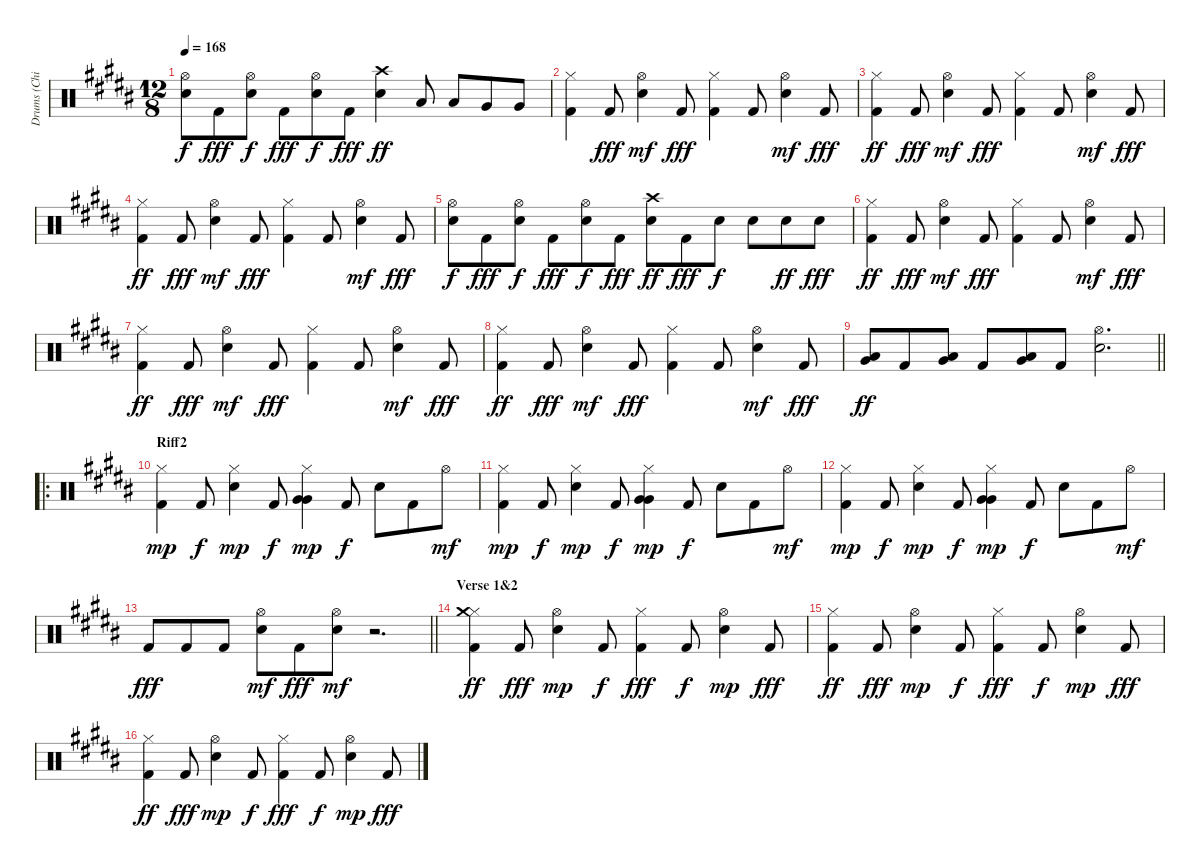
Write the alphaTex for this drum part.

\track ("Drums (Chinyakov)" "Drums (Chi") {instrument percussion}
\staff {score}
\articulation defaults
\ts (12 8)
\tempo 168
\clef neutral
\ks b
("Electric Snare (hit)" "Hi-Hat (open)").8{dy f} "Kick (hit) 2".8{dy fff} ("Electric Snare (hit)" "Hi-Hat (open)").8{dy f} "Kick (hit) 2".8{dy fff} ("Electric Snare (hit)" "Hi-Hat (open)").8{dy f} "Kick (hit) 2".8{dy fff} ("Electric Snare (hit)" "Crash high (hit)").4{dy ff} "Low Tom (hit)".8 "Low Tom (hit)".8 "Very Low Tom (hit)".8 "Very Low Tom (hit)".8 |
("Kick (hit) 2" "Hi-Hat (closed)").4 "Kick (hit) 2".8{dy fff} ("Electric Snare (hit)" "Hi-Hat (open)").4{dy mf} "Kick (hit) 2".8{dy fff} ("Kick (hit) 2" "Hi-Hat (closed)").4 "Kick (hit) 2".8 ("Electric Snare (hit)" "Hi-Hat (open)").4{dy mf} "Kick (hit) 2".8{dy fff} |
("Kick (hit) 2" "Hi-Hat (closed)").4{dy ff} "Kick (hit) 2".8{dy fff} ("Electric Snare (hit)" "Hi-Hat (open)").4{dy mf} "Kick (hit) 2".8{dy fff} ("Kick (hit) 2" "Hi-Hat (closed)").4 "Kick (hit) 2".8 ("Electric Snare (hit)" "Hi-Hat (open)").4{dy mf} "Kick (hit) 2".8{dy fff} |
("Kick (hit) 2" "Hi-Hat (closed)").4{dy ff} "Kick (hit) 2".8{dy fff} ("Electric Snare (hit)" "Hi-Hat (open)").4{dy mf} "Kick (hit) 2".8{dy fff} ("Kick (hit) 2" "Hi-Hat (closed)").4 "Kick (hit) 2".8 ("Electric Snare (hit)" "Hi-Hat (open)").4{dy mf} "Kick (hit) 2".8{dy fff} |
("Electric Snare (hit)" "Hi-Hat (open)").8{dy f} "Kick (hit) 2".8{dy fff} ("Electric Snare (hit)" "Hi-Hat (open)").8{dy f} "Kick (hit) 2".8{dy fff} ("Electric Snare (hit)" "Hi-Hat (open)").8{dy f} "Kick (hit) 2".8{dy fff} ("Electric Snare (hit)" "Crash high (hit)").8{dy ff} "Kick (hit) 2".8{dy fff} "Electric Snare (hit)".8{dy f} "Electric Snare (hit)".8 "Electric Snare (hit)".8{dy ff} "Electric Snare (hit)".8{dy fff} |
("Kick (hit) 2" "Hi-Hat (closed)").4{dy ff} "Kick (hit) 2".8{dy fff} ("Electric Snare (hit)" "Hi-Hat (open)").4{dy mf} "Kick (hit) 2".8{dy fff} ("Kick (hit) 2" "Hi-Hat (closed)").4 "Kick (hit) 2".8 ("Electric Snare (hit)" "Hi-Hat (open)").4{dy mf} "Kick (hit) 2".8{dy fff} |
("Kick (hit) 2" "Hi-Hat (closed)").4{dy ff} "Kick (hit) 2".8{dy fff} ("Electric Snare (hit)" "Hi-Hat (open)").4{dy mf} "Kick (hit) 2".8{dy fff} ("Kick (hit) 2" "Hi-Hat (closed)").4 "Kick (hit) 2".8 ("Electric Snare (hit)" "Hi-Hat (open)").4{dy mf} "Kick (hit) 2".8{dy fff} |
("Kick (hit) 2" "Hi-Hat (closed)").4{dy ff} "Kick (hit) 2".8{dy fff} ("Electric Snare (hit)" "Hi-Hat (open)").4{dy mf} "Kick (hit) 2".8{dy fff} ("Kick (hit) 2" "Hi-Hat (closed)").4 "Kick (hit) 2".8 ("Electric Snare (hit)" "Hi-Hat (open)").4{dy mf} "Kick (hit) 2".8{dy fff} |
\barLineRight lightlight
("Low Floor Tom (hit)" "Very Low Tom (hit)").8{bd 120 dy ff} "Kick (hit) 2".8 ("Low Floor Tom (hit)" "Very Low Tom (hit)").8{bd 120} "Kick (hit) 2".8 ("Low Floor Tom (hit)" "Very Low Tom (hit)").8{bd 120} "Kick (hit) 2".8 ("Electric Snare (hit)" "Hi-Hat (open)").2{d} |
\ro
\section ("" "Riff2")
("Kick (hit) 2" "Hi-Hat (closed)").4{dy mp} "Kick (hit) 2".8{dy f} ("Electric Snare (hit)" "Hi-Hat (closed)").4{dy mp} "Kick (hit) 2".8{dy f} ("Very Low Tom (hit)" "Very Low Tom (hit)" "Hi-Hat (closed)").4{dy mp} "Kick (hit) 2".8{dy f} "Electric Snare (hit)".8 "Kick (hit) 2".8 "Hi-Hat (open)".8{dy mf} |
("Kick (hit) 2" "Hi-Hat (closed)").4{dy mp} "Kick (hit) 2".8{dy f} ("Electric Snare (hit)" "Hi-Hat (closed)").4{dy mp} "Kick (hit) 2".8{dy f} ("Very Low Tom (hit)" "Very Low Tom (hit)" "Hi-Hat (closed)").4{dy mp} "Kick (hit) 2".8{dy f} "Electric Snare (hit)".8 "Kick (hit) 2".8 "Hi-Hat (open)".8{dy mf} |
("Kick (hit) 2" "Hi-Hat (closed)").4{dy mp} "Kick (hit) 2".8{dy f} ("Electric Snare (hit)" "Hi-Hat (closed)").4{dy mp} "Kick (hit) 2".8{dy f} ("Very Low Tom (hit)" "Very Low Tom (hit)" "Hi-Hat (closed)").4{dy mp} "Kick (hit) 2".8{dy f} "Electric Snare (hit)".8 "Kick (hit) 2".8 "Hi-Hat (open)".8{dy mf} |
\barLineRight lightlight "Kick (hit) 2".8{dy fff} "Kick (hit) 2".8 "Kick (hit) 2".8
("Electric Snare (hit)" "Hi-Hat (open)").8{dy mf} "Kick (hit) 2".8{dy fff} ("Electric Snare (hit)" "Hi-Hat (open)").8{dy mf} r.2{d} |
\section ("" "Verse 1&2")
("Kick (hit) 2" "Hi-Hat (closed)" "Crash medium (hit)").4{dy ff} "Kick (hit) 2".8{dy fff} ("Electric Snare (hit)" "Hi-Hat (open)").4{dy mp} "Kick (hit) 2".8{dy f} ("Kick (hit) 2" "Hi-Hat (closed)").4{dy fff} "Kick (hit) 2".8{dy f} ("Electric Snare (hit)" "Hi-Hat (open)").4{dy mp} "Kick (hit) 2".8{dy fff} |
("Kick (hit) 2" "Hi-Hat (closed)").4{dy ff} "Kick (hit) 2".8{dy fff} ("Electric Snare (hit)" "Hi-Hat (open)").4{dy mp} "Kick (hit) 2".8{dy f} ("Kick (hit) 2" "Hi-Hat (closed)").4{dy fff} "Kick (hit) 2".8{dy f} ("Electric Snare (hit)" "Hi-Hat (open)").4{dy mp} "Kick (hit) 2".8{dy fff} |
("Kick (hit) 2" "Hi-Hat (closed)").4{dy ff} "Kick (hit) 2".8{dy fff} ("Electric Snare (hit)" "Hi-Hat (open)").4{dy mp} "Kick (hit) 2".8{dy f} ("Kick (hit) 2" "Hi-Hat (closed)").4{dy fff} "Kick (hit) 2".8{dy f} ("Electric Snare (hit)" "Hi-Hat (open)").4{dy mp} "Kick (hit) 2".8{dy fff}
